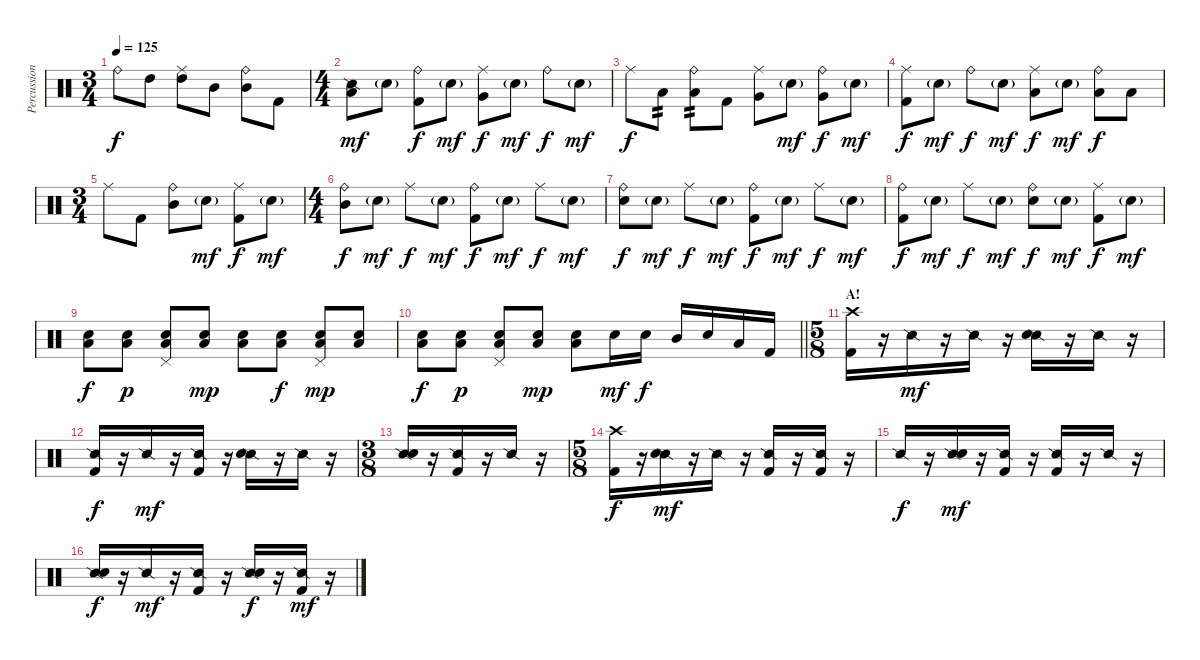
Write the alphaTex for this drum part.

\track ("Percussion" "Percussion") {instrument percussion}
\staff {score}
\articulation defaults
\ts (3 4)
\tempo 125
\clef neutral
\ks c "Ride (bell)".8{dy f} "High Tom (hit)".8
("Ride (middle)" "High Tom (hit)").8 "Mid Tom (hit)".8 ("Ride (bell)" "Mid Tom (hit)").8 "Kick (hit) 2".8 |
\ts (4 4)
("Snare (side stick) 2" "Low Tom (hit)").8{dy mf} "Snare (hit) 2"{g}.8 ("Ride (bell)" "Kick (hit) 2").8{dy f} "Snare (hit) 2"{g}.8{dy mf} ("Ride (middle)" "Very Low Tom (hit)").8{dy f} "Snare (hit) 2"{g}.8{dy mf} "Ride (bell)".8{dy f} "Snare (hit) 2"{g}.8{dy mf} |
"Ride (middle)".8{dy f} "Low Tom (hit)".8{tp 2} ("Ride (bell)" "Low Tom (hit)").8{tp 2} "Kick (hit) 2".8 ("Ride (middle)" "Very Low Tom (hit)").8 "Snare (hit) 2"{g}.8{dy mf} ("Ride (bell)" "Very Low Tom (hit)").8{dy f} "Snare (hit) 2"{g}.8{dy mf} |
("Ride (middle)" "Kick (hit) 2").8{dy f} "Snare (hit) 2"{g}.8{dy mf} "Ride (bell)".8{dy f} "Snare (hit) 2"{g}.8{dy mf} ("Ride (middle)" "Low Tom (hit)").8{dy f} "Snare (hit) 2"{g}.8{dy mf} ("Ride (bell)" "Low Tom (hit)").8{dy f} "Low Tom (hit)".8 |
\ts (3 4)
"Ride (middle)".8 "Kick (hit) 2".8 ("Ride (bell)" "Mid Tom (hit)").8 "Snare (hit) 2"{g}.8{dy mf} ("Ride (middle)" "Kick (hit) 2").8{dy f} "Snare (hit) 2"{g}.8{dy mf} |
\ts (4 4)
("Ride (bell)" "Mid Tom (hit)").8{dy f} "Snare (hit) 2"{g}.8{dy mf} "Ride (middle)".8{dy f} "Snare (hit) 2"{g}.8{dy mf} ("Ride (bell)" "Kick (hit) 2").8{dy f} "Snare (hit) 2"{g}.8{dy mf} "Ride (middle)".8{dy f} "Snare (hit) 2"{g}.8{dy mf} |
("Ride (bell)" "Snare (hit) 2").8{dy f} "Snare (hit) 2"{g}.8{dy mf} "Ride (middle)".8{dy f} "Snare (hit) 2"{g}.8{dy mf} ("Ride (bell)" "Kick (hit) 2").8{dy f} "Snare (hit) 2"{g}.8{dy mf} "Ride (middle)".8{dy f} "Snare (hit) 2"{g}.8{dy mf} |
("Ride (bell)" "Kick (hit) 2").8{dy f} "Snare (hit) 2"{g}.8{dy mf} "Ride (middle)".8{dy f} "Snare (hit) 2"{g}.8{dy mf} ("Ride (bell)" "Snare (hit) 2").8{dy f} "Snare (hit) 2"{g}.8{dy mf} ("Ride (middle)" "Kick (hit) 2").8{dy f} "Snare (hit) 2"{g}.8{dy mf} |
("Low Tom (hit)" "Snare (hit) 2").8{dy f} ("Low Tom (hit)" "Snare (hit) 2").8{dy p} ("Pedal Hi-Hat (hit)" "Low Tom (hit)" "Snare (hit) 2").8 ("Low Tom (hit)" "Snare (hit) 2").8{dy mp} ("Low Tom (hit)" "Snare (hit) 2").8 ("Low Tom (hit)" "Snare (hit) 2").8{dy f} ("Pedal Hi-Hat (hit)" "Low Tom (hit)" "Snare (hit) 2").8{dy mp} ("Low Tom (hit)" "Snare (hit) 2").8 |
\barLineRight lightlight
("Low Tom (hit)" "Snare (hit) 2").8{dy f} ("Low Tom (hit)" "Snare (hit) 2").8{dy p} ("Pedal Hi-Hat (hit)" "Low Tom (hit)" "Snare (hit) 2").8 ("Low Tom (hit)" "Snare (hit) 2").8{dy mp} ("Low Tom (hit)" "Snare (hit) 2").8 "Snare (hit) 2".16{dy mf} "Snare (hit) 2".16{dy f} "Mid Tom (hit)".16 "Snare (hit) 2".16 "Low Tom (hit)".16 "Kick (hit) 2".16 |
\ts (5 8)
\section ("" "A!")
("Crash high (hit)" "Kick (hit) 2").16 r.16 "Snare (side stick) 2".16{dy mf} r.16 "Snare (side stick) 2".16 r.16 ("Snare (side stick) 2" "Snare (hit) 2").16 r.16 "Snare (side stick) 2".16 r.16 |
("Snare (side stick) 2" "Kick (hit) 2").16{dy f} r.16 "Snare (side stick) 2".16{dy mf} r.16 ("Snare (side stick) 2" "Kick (hit) 2").16 r.16 ("Snare (side stick) 2" "Snare (hit) 2").16 r.16 "Snare (side stick) 2".16 r.16 |
\ts (3 8)
("Snare (side stick) 2" "Snare (hit) 2").16 r.16 ("Snare (side stick) 2" "Kick (hit) 2").16 r.16 "Snare (side stick) 2".16 r.16 |
\ts (5 8)
("Crash high (hit)" "Kick (hit) 2").16{dy f} r.16 ("Snare (side stick) 2" "Snare (hit) 2").16{dy mf} r.16 "Snare (side stick) 2".16 r.16 ("Snare (side stick) 2" "Kick (hit) 2").16 r.16 ("Snare (side stick) 2" "Kick (hit) 2").16 r.16 |
"Snare (side stick) 2".16{dy f} r.16 ("Snare (side stick) 2" "Snare (hit) 2").16{dy mf} r.16 ("Snare (side stick) 2" "Kick (hit) 2").16 r.16 ("Snare (side stick) 2" "Kick (hit) 2").16 r.16 "Snare (side stick) 2".16 r.16 |
("Snare (side stick) 2" "Snare (hit) 2").16{dy f} r.16 "Snare (side stick) 2".16{dy mf} r.16 ("Snare (side stick) 2" "Kick (hit) 2").16 r.16 ("Snare (side stick) 2" "Snare (hit) 2").16{dy f} r.16 ("Snare (side stick) 2" "Kick (hit) 2").16{dy mf} r.16
